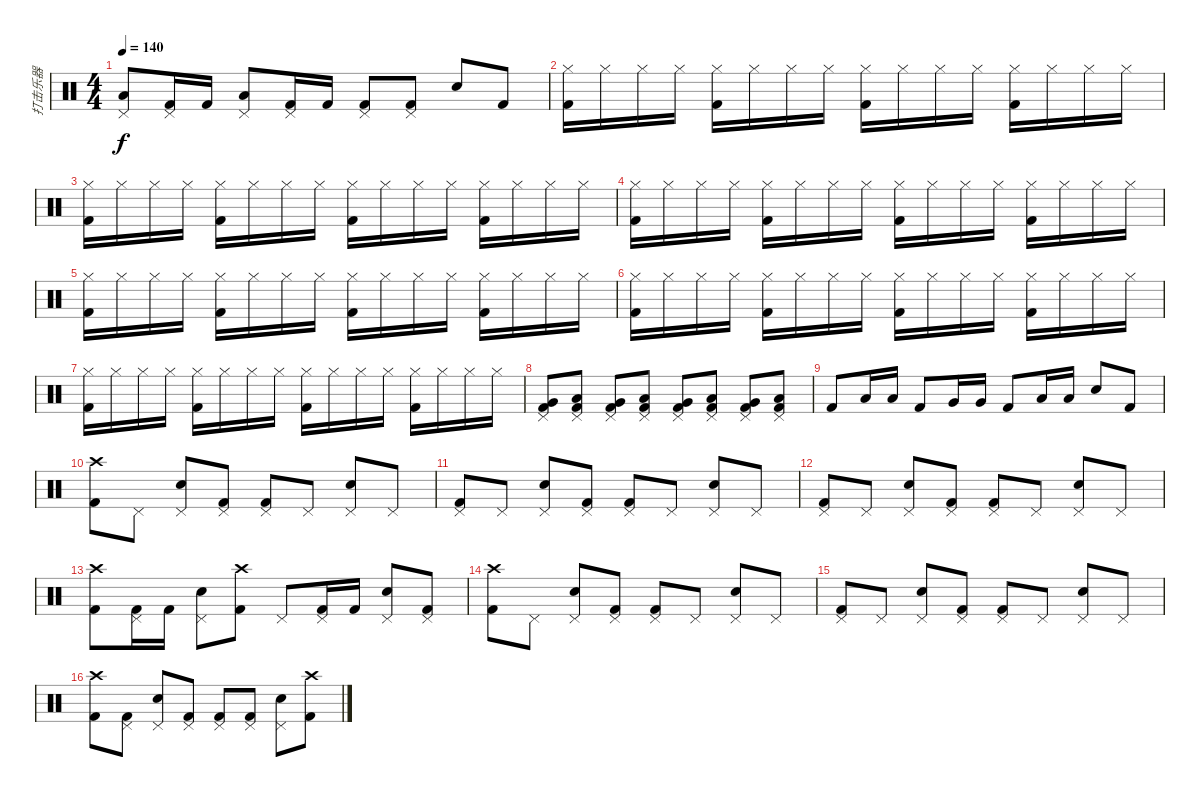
\track ("打击乐器" "打击乐器") {instrument percussion}
\staff {score}
\articulation defaults
\ts (4 4)
\tempo 140
\clef neutral
\ks c
("Pedal Hi-Hat (hit)" "Low Floor Tom (hit)").8{dy f} ("Pedal Hi-Hat (hit)" "Kick (hit) 2").16 "Kick (hit) 2".16 ("Pedal Hi-Hat (hit)" "Low Floor Tom (hit)").8 ("Pedal Hi-Hat (hit)" "Kick (hit) 2").16 "Kick (hit) 2".16 ("Pedal Hi-Hat (hit)" "Kick (hit) 2").8 ("Pedal Hi-Hat (hit)" "Kick (hit) 2").8 "Electric Snare (hit)".8 "Kick (hit) 2".8 |
("Hi-Hat (closed)" "Kick (hit) 2").16 "Hi-Hat (closed)".16 "Hi-Hat (closed)".16 "Hi-Hat (closed)".16 ("Hi-Hat (closed)" "Kick (hit) 2").16 "Hi-Hat (closed)".16 "Hi-Hat (closed)".16 "Hi-Hat (closed)".16 ("Hi-Hat (closed)" "Kick (hit) 2").16 "Hi-Hat (closed)".16 "Hi-Hat (closed)".16 "Hi-Hat (closed)".16 ("Hi-Hat (closed)" "Kick (hit) 2").16 "Hi-Hat (closed)".16 "Hi-Hat (closed)".16 "Hi-Hat (closed)".16 |
("Hi-Hat (closed)" "Kick (hit) 2").16 "Hi-Hat (closed)".16 "Hi-Hat (closed)".16 "Hi-Hat (closed)".16 ("Hi-Hat (closed)" "Kick (hit) 2").16 "Hi-Hat (closed)".16 "Hi-Hat (closed)".16 "Hi-Hat (closed)".16 ("Hi-Hat (closed)" "Kick (hit) 2").16 "Hi-Hat (closed)".16 "Hi-Hat (closed)".16 "Hi-Hat (closed)".16 ("Hi-Hat (closed)" "Kick (hit) 2").16 "Hi-Hat (closed)".16 "Hi-Hat (closed)".16 "Hi-Hat (closed)".16 |
("Hi-Hat (closed)" "Kick (hit) 2").16 "Hi-Hat (closed)".16 "Hi-Hat (closed)".16 "Hi-Hat (closed)".16 ("Hi-Hat (closed)" "Kick (hit) 2").16 "Hi-Hat (closed)".16 "Hi-Hat (closed)".16 "Hi-Hat (closed)".16 ("Hi-Hat (closed)" "Kick (hit) 2").16 "Hi-Hat (closed)".16 "Hi-Hat (closed)".16 "Hi-Hat (closed)".16 ("Hi-Hat (closed)" "Kick (hit) 2").16 "Hi-Hat (closed)".16 "Hi-Hat (closed)".16 "Hi-Hat (closed)".16 |
("Hi-Hat (closed)" "Kick (hit) 2").16 "Hi-Hat (closed)".16 "Hi-Hat (closed)".16 "Hi-Hat (closed)".16 ("Hi-Hat (closed)" "Kick (hit) 2").16 "Hi-Hat (closed)".16 "Hi-Hat (closed)".16 "Hi-Hat (closed)".16 ("Hi-Hat (closed)" "Kick (hit) 2").16 "Hi-Hat (closed)".16 "Hi-Hat (closed)".16 "Hi-Hat (closed)".16 ("Hi-Hat (closed)" "Kick (hit) 2").16 "Hi-Hat (closed)".16 "Hi-Hat (closed)".16 "Hi-Hat (closed)".16 |
("Hi-Hat (closed)" "Kick (hit) 2").16 "Hi-Hat (closed)".16 "Hi-Hat (closed)".16 "Hi-Hat (closed)".16 ("Hi-Hat (closed)" "Kick (hit) 2").16 "Hi-Hat (closed)".16 "Hi-Hat (closed)".16 "Hi-Hat (closed)".16 ("Hi-Hat (closed)" "Kick (hit) 2").16 "Hi-Hat (closed)".16 "Hi-Hat (closed)".16 "Hi-Hat (closed)".16 ("Hi-Hat (closed)" "Kick (hit) 2").16 "Hi-Hat (closed)".16 "Hi-Hat (closed)".16 "Hi-Hat (closed)".16 |
("Hi-Hat (closed)" "Kick (hit) 2").16 "Hi-Hat (closed)".16 "Hi-Hat (closed)".16 "Hi-Hat (closed)".16 ("Hi-Hat (closed)" "Kick (hit) 2").16 "Hi-Hat (closed)".16 "Hi-Hat (closed)".16 "Hi-Hat (closed)".16 ("Hi-Hat (closed)" "Kick (hit) 2").16 "Hi-Hat (closed)".16 "Hi-Hat (closed)".16 "Hi-Hat (closed)".16 ("Hi-Hat (closed)" "Kick (hit) 2").16 "Hi-Hat (closed)".16 "Hi-Hat (closed)".16 "Hi-Hat (closed)".16 |
("Pedal Hi-Hat (hit)" "Very Low Tom (hit)" "Kick (hit) 2").8 ("Pedal Hi-Hat (hit)" "Low Floor Tom (hit)" "Kick (hit) 2").8 ("Pedal Hi-Hat (hit)" "Very Low Tom (hit)" "Kick (hit) 2").8 ("Pedal Hi-Hat (hit)" "Low Floor Tom (hit)" "Kick (hit) 2").8 ("Pedal Hi-Hat (hit)" "Very Low Tom (hit)" "Kick (hit) 2").8 ("Pedal Hi-Hat (hit)" "Low Floor Tom (hit)" "Kick (hit) 2").8 ("Pedal Hi-Hat (hit)" "Very Low Tom (hit)" "Kick (hit) 2").8 ("Pedal Hi-Hat (hit)" "Low Floor Tom (hit)" "Kick (hit) 2").8 |
"Kick (hit) 2".8 "Low Tom (hit)".16 "Low Tom (hit)".16 "Kick (hit) 2".8 "Very Low Tom (hit)".16 "Very Low Tom (hit)".16 "Kick (hit) 2".8 "Low Floor Tom (hit)".16 "Low Floor Tom (hit)".16 "Electric Snare (hit)".8 "Kick (hit) 2".8 |
("Crash high (hit)" "Kick (hit) 2").8 "Pedal Hi-Hat (hit)".8 ("Pedal Hi-Hat (hit)" "Electric Snare (hit)").8 ("Pedal Hi-Hat (hit)" "Kick (hit) 2").8 ("Pedal Hi-Hat (hit)" "Kick (hit) 2").8 "Pedal Hi-Hat (hit)".8 ("Pedal Hi-Hat (hit)" "Electric Snare (hit)").8 "Pedal Hi-Hat (hit)".8 |
("Pedal Hi-Hat (hit)" "Kick (hit) 2").8 "Pedal Hi-Hat (hit)".8 ("Pedal Hi-Hat (hit)" "Electric Snare (hit)").8 ("Pedal Hi-Hat (hit)" "Kick (hit) 2").8 ("Pedal Hi-Hat (hit)" "Kick (hit) 2").8 "Pedal Hi-Hat (hit)".8 ("Pedal Hi-Hat (hit)" "Electric Snare (hit)").8 "Pedal Hi-Hat (hit)".8 |
("Pedal Hi-Hat (hit)" "Kick (hit) 2").8 "Pedal Hi-Hat (hit)".8 ("Pedal Hi-Hat (hit)" "Electric Snare (hit)").8 ("Pedal Hi-Hat (hit)" "Kick (hit) 2").8 ("Pedal Hi-Hat (hit)" "Kick (hit) 2").8 "Pedal Hi-Hat (hit)".8 ("Pedal Hi-Hat (hit)" "Electric Snare (hit)").8 "Pedal Hi-Hat (hit)".8 |
("Crash high (hit)" "Kick (hit) 2").8 ("Pedal Hi-Hat (hit)" "Kick (hit) 2").16 "Kick (hit) 2".16 ("Pedal Hi-Hat (hit)" "Electric Snare (hit)").8 ("Crash high (hit)" "Kick (hit) 2").8 "Pedal Hi-Hat (hit)".8 ("Pedal Hi-Hat (hit)" "Kick (hit) 2").16 "Kick (hit) 2".16 ("Pedal Hi-Hat (hit)" "Electric Snare (hit)").8 ("Pedal Hi-Hat (hit)" "Kick (hit) 2").8 |
("Crash high (hit)" "Kick (hit) 2").8 "Pedal Hi-Hat (hit)".8 ("Pedal Hi-Hat (hit)" "Electric Snare (hit)").8 ("Pedal Hi-Hat (hit)" "Kick (hit) 2").8 ("Pedal Hi-Hat (hit)" "Kick (hit) 2").8 "Pedal Hi-Hat (hit)".8 ("Pedal Hi-Hat (hit)" "Electric Snare (hit)").8 "Pedal Hi-Hat (hit)".8 |
("Pedal Hi-Hat (hit)" "Kick (hit) 2").8 "Pedal Hi-Hat (hit)".8 ("Pedal Hi-Hat (hit)" "Electric Snare (hit)").8 ("Pedal Hi-Hat (hit)" "Kick (hit) 2").8 ("Pedal Hi-Hat (hit)" "Kick (hit) 2").8 "Pedal Hi-Hat (hit)".8 ("Pedal Hi-Hat (hit)" "Electric Snare (hit)").8 "Pedal Hi-Hat (hit)".8 |
("Crash high (hit)" "Kick (hit) 2").8 ("Pedal Hi-Hat (hit)" "Kick (hit) 2").8 ("Pedal Hi-Hat (hit)" "Electric Snare (hit)").8 ("Pedal Hi-Hat (hit)" "Kick (hit) 2").8 ("Pedal Hi-Hat (hit)" "Kick (hit) 2").8 ("Pedal Hi-Hat (hit)" "Kick (hit) 2").8 ("Pedal Hi-Hat (hit)" "Electric Snare (hit)").8 ("Crash high (hit)" "Kick (hit) 2").8
